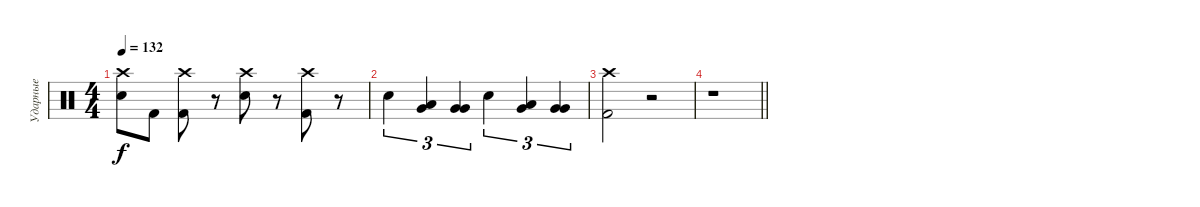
\track ("Ударные" "Ударные") {instrument percussion}
\staff {score}
\articulation defaults
\ts (4 4)
\tempo 132
\clef neutral
\ks c
("Snare (hit) 2" "Crash high (hit)").8{dy f} "Kick (hit) 2".8 ("Kick (hit) 2" "Crash high (hit)").8 r.8 ("Snare (hit) 2" "Crash high (hit)").8 r.8 ("Kick (hit) 2" "Crash high (hit)").8 r.8 |
"Snare (hit) 2".4{tu (3 2)} ("Very Low Tom (hit)" "Low Tom (hit)").4{tu (3 2)} ("Very Low Tom (hit)" "Very Low Tom (hit)").4{tu (3 2)} "Snare (hit) 2".4{tu (3 2)} ("Very Low Tom (hit)" "Low Tom (hit)").4{tu (3 2)} ("Very Low Tom (hit)" "Very Low Tom (hit)").4{tu (3 2)} |
("Kick (hit) 2" "Crash high (hit)").2 r.2 |
\barLineRight lightlight
r.1
